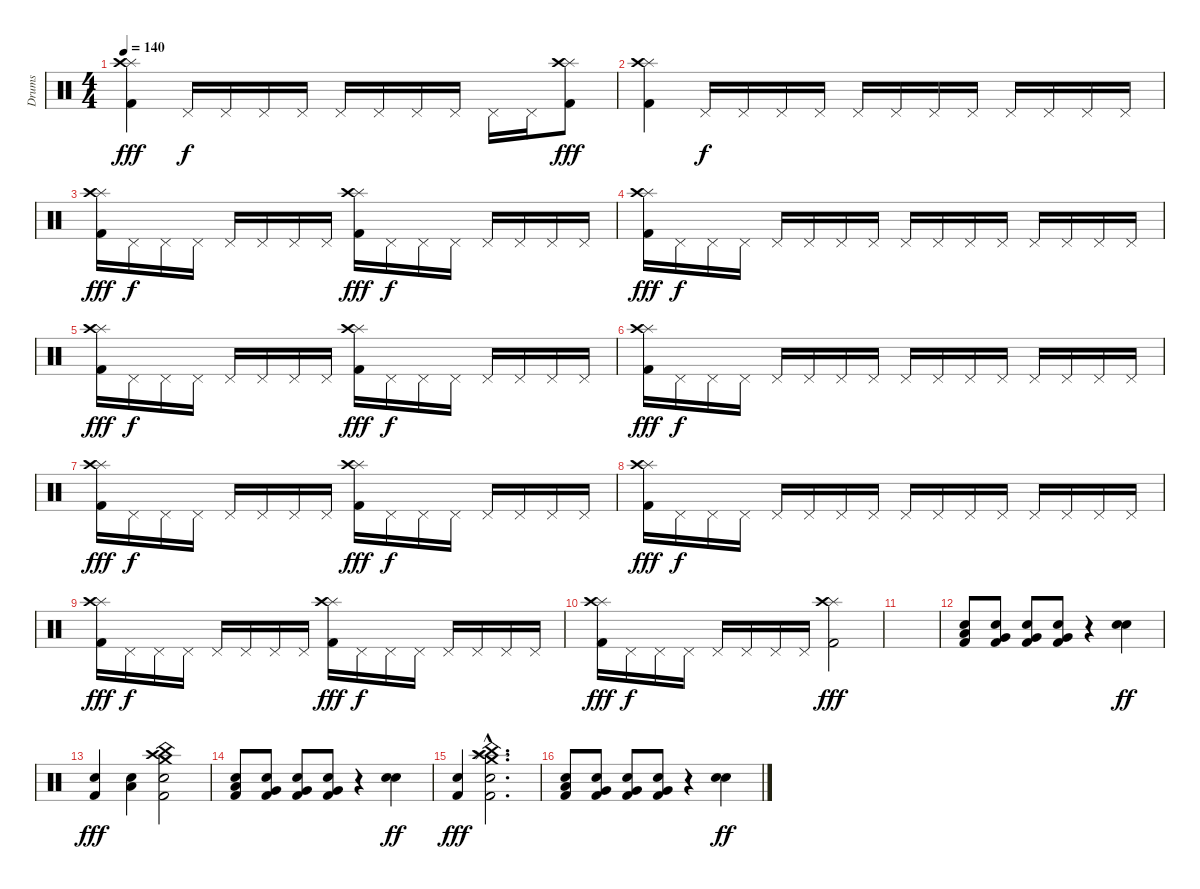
\track ("Drums" "Drums") {instrument percussion}
\staff {score}
\articulation defaults
\ts (4 4)
\tempo 140
\clef neutral
\ks c
("Splash (hit)" "Crash high (hit)" "Kick (hit) 2").4{dy fff} "Pedal Hi-Hat (hit)".16{dy f} "Pedal Hi-Hat (hit)".16 "Pedal Hi-Hat (hit)".16 "Pedal Hi-Hat (hit)".16 "Pedal Hi-Hat (hit)".16 "Pedal Hi-Hat (hit)".16 "Pedal Hi-Hat (hit)".16 "Pedal Hi-Hat (hit)".16 "Pedal Hi-Hat (hit)".16 "Pedal Hi-Hat (hit)".16 ("Splash (hit)" "Crash high (hit)" "Kick (hit) 2").8{dy fff} |
("Splash (hit)" "Crash high (hit)" "Kick (hit) 2").4 "Pedal Hi-Hat (hit)".16{dy f} "Pedal Hi-Hat (hit)".16 "Pedal Hi-Hat (hit)".16 "Pedal Hi-Hat (hit)".16 "Pedal Hi-Hat (hit)".16 "Pedal Hi-Hat (hit)".16 "Pedal Hi-Hat (hit)".16 "Pedal Hi-Hat (hit)".16 "Pedal Hi-Hat (hit)".16 "Pedal Hi-Hat (hit)".16 "Pedal Hi-Hat (hit)".16 "Pedal Hi-Hat (hit)".16 |
("Splash (hit)" "Crash high (hit)" "Kick (hit) 2").16{dy fff} "Pedal Hi-Hat (hit)".16{dy f} "Pedal Hi-Hat (hit)".16 "Pedal Hi-Hat (hit)".16 "Pedal Hi-Hat (hit)".16 "Pedal Hi-Hat (hit)".16 "Pedal Hi-Hat (hit)".16 "Pedal Hi-Hat (hit)".16 ("Splash (hit)" "Crash high (hit)" "Kick (hit) 2").16{dy fff} "Pedal Hi-Hat (hit)".16{dy f} "Pedal Hi-Hat (hit)".16 "Pedal Hi-Hat (hit)".16 "Pedal Hi-Hat (hit)".16 "Pedal Hi-Hat (hit)".16 "Pedal Hi-Hat (hit)".16 "Pedal Hi-Hat (hit)".16 |
("Splash (hit)" "Crash high (hit)" "Kick (hit) 2").16{dy fff} "Pedal Hi-Hat (hit)".16{dy f} "Pedal Hi-Hat (hit)".16 "Pedal Hi-Hat (hit)".16 "Pedal Hi-Hat (hit)".16 "Pedal Hi-Hat (hit)".16 "Pedal Hi-Hat (hit)".16 "Pedal Hi-Hat (hit)".16 "Pedal Hi-Hat (hit)".16 "Pedal Hi-Hat (hit)".16 "Pedal Hi-Hat (hit)".16 "Pedal Hi-Hat (hit)".16 "Pedal Hi-Hat (hit)".16 "Pedal Hi-Hat (hit)".16 "Pedal Hi-Hat (hit)".16 "Pedal Hi-Hat (hit)".16 |
("Splash (hit)" "Crash high (hit)" "Kick (hit) 2").16{dy fff} "Pedal Hi-Hat (hit)".16{dy f} "Pedal Hi-Hat (hit)".16 "Pedal Hi-Hat (hit)".16 "Pedal Hi-Hat (hit)".16 "Pedal Hi-Hat (hit)".16 "Pedal Hi-Hat (hit)".16 "Pedal Hi-Hat (hit)".16 ("Splash (hit)" "Crash high (hit)" "Kick (hit) 2").16{dy fff} "Pedal Hi-Hat (hit)".16{dy f} "Pedal Hi-Hat (hit)".16 "Pedal Hi-Hat (hit)".16 "Pedal Hi-Hat (hit)".16 "Pedal Hi-Hat (hit)".16 "Pedal Hi-Hat (hit)".16 "Pedal Hi-Hat (hit)".16 |
("Splash (hit)" "Crash high (hit)" "Kick (hit) 2").16{dy fff} "Pedal Hi-Hat (hit)".16{dy f} "Pedal Hi-Hat (hit)".16 "Pedal Hi-Hat (hit)".16 "Pedal Hi-Hat (hit)".16 "Pedal Hi-Hat (hit)".16 "Pedal Hi-Hat (hit)".16 "Pedal Hi-Hat (hit)".16 "Pedal Hi-Hat (hit)".16 "Pedal Hi-Hat (hit)".16 "Pedal Hi-Hat (hit)".16 "Pedal Hi-Hat (hit)".16 "Pedal Hi-Hat (hit)".16 "Pedal Hi-Hat (hit)".16 "Pedal Hi-Hat (hit)".16 "Pedal Hi-Hat (hit)".16 |
("Splash (hit)" "Crash high (hit)" "Kick (hit) 2").16{dy fff} "Pedal Hi-Hat (hit)".16{dy f} "Pedal Hi-Hat (hit)".16 "Pedal Hi-Hat (hit)".16 "Pedal Hi-Hat (hit)".16 "Pedal Hi-Hat (hit)".16 "Pedal Hi-Hat (hit)".16 "Pedal Hi-Hat (hit)".16 ("Splash (hit)" "Crash high (hit)" "Kick (hit) 2").16{dy fff} "Pedal Hi-Hat (hit)".16{dy f} "Pedal Hi-Hat (hit)".16 "Pedal Hi-Hat (hit)".16 "Pedal Hi-Hat (hit)".16 "Pedal Hi-Hat (hit)".16 "Pedal Hi-Hat (hit)".16 "Pedal Hi-Hat (hit)".16 |
("Splash (hit)" "Crash high (hit)" "Kick (hit) 2").16{dy fff} "Pedal Hi-Hat (hit)".16{dy f} "Pedal Hi-Hat (hit)".16 "Pedal Hi-Hat (hit)".16 "Pedal Hi-Hat (hit)".16 "Pedal Hi-Hat (hit)".16 "Pedal Hi-Hat (hit)".16 "Pedal Hi-Hat (hit)".16 "Pedal Hi-Hat (hit)".16 "Pedal Hi-Hat (hit)".16 "Pedal Hi-Hat (hit)".16 "Pedal Hi-Hat (hit)".16 "Pedal Hi-Hat (hit)".16 "Pedal Hi-Hat (hit)".16 "Pedal Hi-Hat (hit)".16 "Pedal Hi-Hat (hit)".16 |
("Splash (hit)" "Crash high (hit)" "Kick (hit) 2").16{dy fff} "Pedal Hi-Hat (hit)".16{dy f} "Pedal Hi-Hat (hit)".16 "Pedal Hi-Hat (hit)".16 "Pedal Hi-Hat (hit)".16 "Pedal Hi-Hat (hit)".16 "Pedal Hi-Hat (hit)".16 "Pedal Hi-Hat (hit)".16 ("Splash (hit)" "Crash high (hit)" "Kick (hit) 2").16{dy fff} "Pedal Hi-Hat (hit)".16{dy f} "Pedal Hi-Hat (hit)".16 "Pedal Hi-Hat (hit)".16 "Pedal Hi-Hat (hit)".16 "Pedal Hi-Hat (hit)".16 "Pedal Hi-Hat (hit)".16 "Pedal Hi-Hat (hit)".16 |
("Splash (hit)" "Crash high (hit)" "Kick (hit) 2").16{dy fff} "Pedal Hi-Hat (hit)".16{dy f} "Pedal Hi-Hat (hit)".16 "Pedal Hi-Hat (hit)".16 "Pedal Hi-Hat (hit)".16 "Pedal Hi-Hat (hit)".16 "Pedal Hi-Hat (hit)".16 "Pedal Hi-Hat (hit)".16 ("Splash (hit)" "Crash high (hit)" "Kick (hit) 2").2{dy fff} |
|
("Snare (hit) 2" "Low Floor Tom (hit)" "Kick (hit) 2").8 ("Snare (hit) 2" "Very Low Tom (hit)" "Kick (hit) 2").8 ("Snare (hit) 2" "Very Low Tom (hit)" "Kick (hit) 2").8 ("Snare (hit) 2" "Very Low Tom (hit)" "Kick (hit) 2").8 r.4 ("Electric Snare (hit)" "Snare (hit) 2").4{dy ff} |
("Kick (hit) 2" "Snare (hit) 2").4{dy fff} ("Low Floor Tom (hit)" "Snare (hit) 2").4 ("Crash medium (hit)" "Snare (hit) 2" "China (hit)" "Crash high (hit)" "Kick (hit) 2").2 |
("Snare (hit) 2" "Low Floor Tom (hit)" "Kick (hit) 2").8 ("Snare (hit) 2" "Very Low Tom (hit)" "Kick (hit) 2").8 ("Snare (hit) 2" "Very Low Tom (hit)" "Kick (hit) 2").8 ("Snare (hit) 2" "Very Low Tom (hit)" "Kick (hit) 2").8 r.4 ("Electric Snare (hit)" "Snare (hit) 2").4{dy ff} |
("Snare (hit) 2" "Kick (hit) 2").4{dy fff} ("Crash medium (hit)"{hac} "China (hit)"{hac} "Snare (hit) 2"{hac} "Kick (hit) 2"{hac} "Splash (hit)"{hac} "Crash high (hit)"{hac}).2{d} |
("Snare (hit) 2" "Low Floor Tom (hit)" "Kick (hit) 2").8 ("Snare (hit) 2" "Very Low Tom (hit)" "Kick (hit) 2").8 ("Snare (hit) 2" "Very Low Tom (hit)" "Kick (hit) 2").8 ("Snare (hit) 2" "Very Low Tom (hit)" "Kick (hit) 2").8 r.4 ("Electric Snare (hit)" "Snare (hit) 2").4{dy ff}
